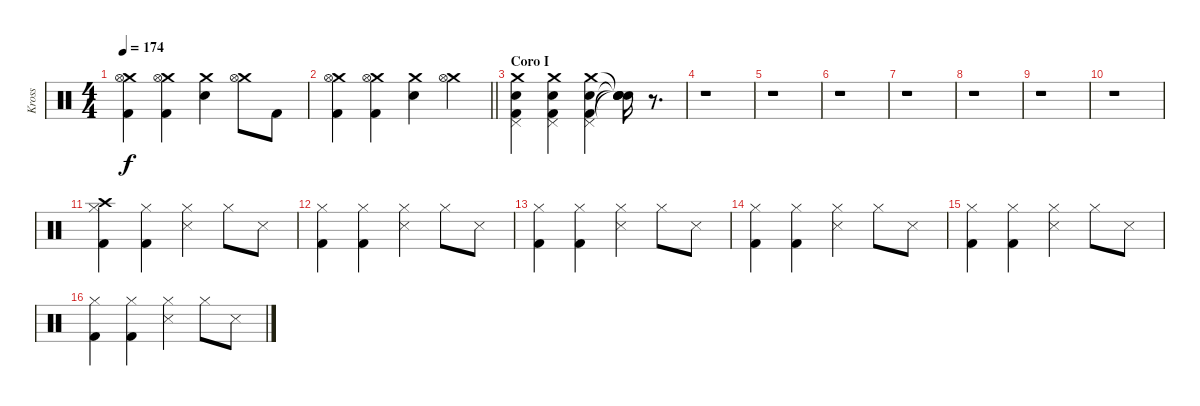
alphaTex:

\track ("Kross" "Kross") {instrument percussion}
\staff {score}
\articulation defaults
\ts (4 4)
\tempo 174
\clef neutral
\ks c
("Crash medium (hit)" "Hi-Hat (open)" "Kick (hit) 2").4{dy f} ("Crash medium (hit)" "Hi-Hat (open)" "Kick (hit) 2").4 ("Crash medium (hit)" "Electric Snare (hit)").4 ("Crash medium (hit)" "Hi-Hat (open)").8 "Kick (hit) 2".8 |
\barLineRight lightlight
("Crash medium (hit)" "Hi-Hat (open)" "Kick (hit) 2").4 ("Crash medium (hit)" "Hi-Hat (open)" "Kick (hit) 2").4 ("Crash medium (hit)" "Electric Snare (hit)").4 ("Crash medium (hit)" "Hi-Hat (open)").4 |
\section ("" "Coro I")
("Crash medium (hit)" "Pedal Hi-Hat (hit)" "Electric Snare (hit)" "Kick (hit) 2").4 ("Crash medium (hit)" "Pedal Hi-Hat (hit)" "Electric Snare (hit)" "Kick (hit) 2").4 ("Crash medium (hit)" "Pedal Hi-Hat (hit)" "Electric Snare (hit)" "Kick (hit) 2").4 ("Snare (hit)"{t} "Snare (hit)"{t} "Snare (hit)"{t} "Snare (hit)"{t}).16 r.8{d volume 0} |
r.1 |
r.1 |
r.1 |
r.1 |
r.1 |
r.1 |
r.1{volume 16} |
("Crash high (hit)" "Hi-Hat (closed)" "Kick (hit) 2").4 ("Hi-Hat (closed)" "Kick (hit) 2").4 ("Hi-Hat (closed)" "Snare (side stick) 3").4 "Hi-Hat (closed)".8 "Snare (side stick) 3".8 |
("Hi-Hat (closed)" "Kick (hit) 2").4 ("Hi-Hat (closed)" "Kick (hit) 2").4 ("Hi-Hat (closed)" "Snare (side stick) 3").4 "Hi-Hat (closed)".8 "Snare (side stick) 3".8 |
("Hi-Hat (closed)" "Kick (hit) 2").4 ("Hi-Hat (closed)" "Kick (hit) 2").4 ("Hi-Hat (closed)" "Snare (side stick) 3").4 "Hi-Hat (closed)".8 "Snare (side stick) 3".8 |
("Hi-Hat (closed)" "Kick (hit) 2").4 ("Hi-Hat (closed)" "Kick (hit) 2").4 ("Hi-Hat (closed)" "Snare (side stick) 3").4 "Hi-Hat (closed)".8 "Snare (side stick) 3".8 |
("Hi-Hat (closed)" "Kick (hit) 2").4 ("Hi-Hat (closed)" "Kick (hit) 2").4 ("Hi-Hat (closed)" "Snare (side stick) 3").4 "Hi-Hat (closed)".8 "Snare (side stick) 3".8 |
("Hi-Hat (closed)" "Kick (hit) 2").4 ("Hi-Hat (closed)" "Kick (hit) 2").4 ("Hi-Hat (closed)" "Snare (side stick) 3").4 "Hi-Hat (closed)".8 "Snare (side stick) 3".8
